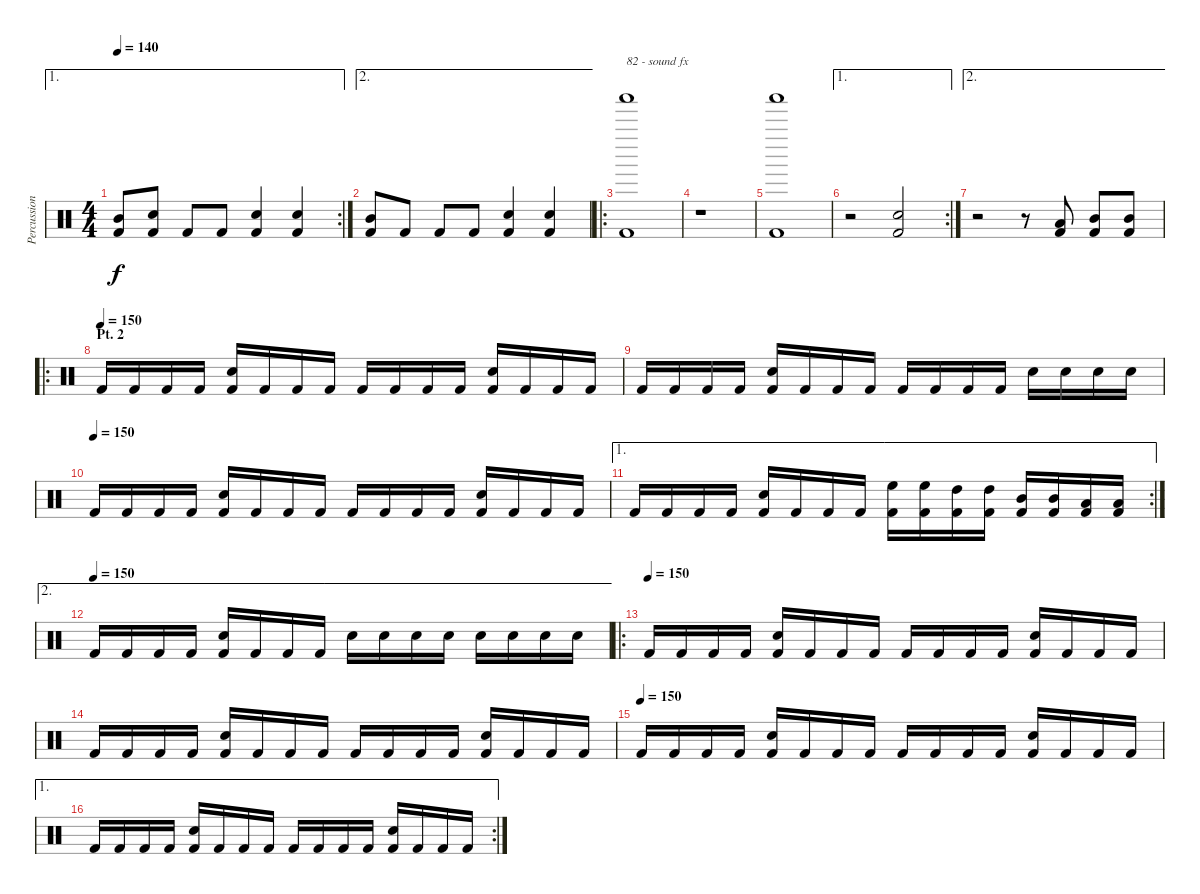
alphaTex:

\track ("Percussion" "Percussion") {instrument percussion}
\staff {score}
\articulation defaults
\ae 1
\rc 2
\ts (4 4)
\tempo 140
\clef neutral
\ks c
("Mid Tom (hit)" "Kick (hit) 2").8{dy f} ("Snare (hit) 2" "Kick (hit) 2").8 "Kick (hit) 2".8 "Kick (hit) 2".8 ("Snare (hit) 2" "Kick (hit) 2").4 ("Snare (hit) 2" "Kick (hit) 2").4 |
\ae 2
("Mid Tom (hit)" "Kick (hit) 2").8 "Kick (hit) 2".8 "Kick (hit) 2".8 "Kick (hit) 2".8 ("Snare (hit) 2" "Kick (hit) 2").4 ("Snare (hit) 2" "Kick (hit) 2").4 |
\ro
("Shaker (hit)" "Kick (hit) 2").1{txt "82 - sound fx"} |
r.1 |
("Shaker (hit)" "Kick (hit) 2").1 |
\ae 1
\rc 2
r.2 ("Snare (hit) 2" "Kick (hit) 2").2 |
\ae 2
r.2 r.8 ("Low Tom (hit)" "Kick (hit) 2").8 ("Mid Tom (hit)" "Kick (hit) 2").8 ("Mid Tom (hit)" "Kick (hit) 2").8 |
\ro
\section ("" "Pt. 2")
\tempo (150)
"Kick (hit) 2".16 "Kick (hit) 2".16 "Kick (hit) 2".16 "Kick (hit) 2".16 ("Snare (hit) 2" "Kick (hit) 2").16 "Kick (hit) 2".16 "Kick (hit) 2".16 "Kick (hit) 2".16 "Kick (hit) 2".16 "Kick (hit) 2".16 "Kick (hit) 2".16 "Kick (hit) 2".16 ("Snare (hit) 2" "Kick (hit) 2").16 "Kick (hit) 2".16 "Kick (hit) 2".16 "Kick (hit) 2".16 |
"Kick (hit) 2".16 "Kick (hit) 2".16 "Kick (hit) 2".16 "Kick (hit) 2".16 ("Snare (hit) 2" "Kick (hit) 2").16 "Kick (hit) 2".16 "Kick (hit) 2".16 "Kick (hit) 2".16 "Kick (hit) 2".16 "Kick (hit) 2".16 "Kick (hit) 2".16 "Kick (hit) 2".16 "Snare (hit) 2".16 "Snare (hit) 2".16 "Snare (hit) 2".16 "Snare (hit) 2".16 |
\tempo (150)
"Kick (hit) 2".16 "Kick (hit) 2".16 "Kick (hit) 2".16 "Kick (hit) 2".16 ("Snare (hit) 2" "Kick (hit) 2").16 "Kick (hit) 2".16 "Kick (hit) 2".16 "Kick (hit) 2".16 "Kick (hit) 2".16 "Kick (hit) 2".16 "Kick (hit) 2".16 "Kick (hit) 2".16 ("Snare (hit) 2" "Kick (hit) 2").16 "Kick (hit) 2".16 "Kick (hit) 2".16 "Kick (hit) 2".16 |
\ae 1
\rc 2 "Kick (hit) 2".16 "Kick (hit) 2".16 "Kick (hit) 2".16 "Kick (hit) 2".16
("Snare (hit) 2" "Kick (hit) 2").16 "Kick (hit) 2".16 "Kick (hit) 2".16 "Kick (hit) 2".16 ("High Floor Tom (hit)" "Kick (hit) 2").16 ("High Floor Tom (hit)" "Kick (hit) 2").16 ("High Tom (hit)" "Kick (hit) 2").16 ("High Tom (hit)" "Kick (hit) 2").16 ("Mid Tom (hit)" "Kick (hit) 2").16 ("Mid Tom (hit)" "Kick (hit) 2").16 ("Low Tom (hit)" "Kick (hit) 2").16 ("Low Tom (hit)" "Kick (hit) 2").16 |
\ae 2
\tempo (150)
"Kick (hit) 2".16 "Kick (hit) 2".16 "Kick (hit) 2".16 "Kick (hit) 2".16 ("Snare (hit) 2" "Kick (hit) 2").16 "Kick (hit) 2".16 "Kick (hit) 2".16 "Kick (hit) 2".16 "Snare (hit) 2".16 "Snare (hit) 2".16 "Snare (hit) 2".16 "Snare (hit) 2".16 "Snare (hit) 2".16 "Snare (hit) 2".16 "Snare (hit) 2".16 "Snare (hit) 2".16 |
\ro
\tempo (150)
"Kick (hit) 2".16 "Kick (hit) 2".16 "Kick (hit) 2".16 "Kick (hit) 2".16 ("Snare (hit) 2" "Kick (hit) 2").16 "Kick (hit) 2".16 "Kick (hit) 2".16 "Kick (hit) 2".16 "Kick (hit) 2".16 "Kick (hit) 2".16 "Kick (hit) 2".16 "Kick (hit) 2".16 ("Snare (hit) 2" "Kick (hit) 2").16 "Kick (hit) 2".16 "Kick (hit) 2".16 "Kick (hit) 2".16 |
"Kick (hit) 2".16 "Kick (hit) 2".16 "Kick (hit) 2".16 "Kick (hit) 2".16 ("Snare (hit) 2" "Kick (hit) 2").16 "Kick (hit) 2".16 "Kick (hit) 2".16 "Kick (hit) 2".16 "Kick (hit) 2".16 "Kick (hit) 2".16 "Kick (hit) 2".16 "Kick (hit) 2".16 ("Snare (hit) 2" "Kick (hit) 2").16 "Kick (hit) 2".16 "Kick (hit) 2".16 "Kick (hit) 2".16 |
\tempo (150)
"Kick (hit) 2".16 "Kick (hit) 2".16 "Kick (hit) 2".16 "Kick (hit) 2".16 ("Snare (hit) 2" "Kick (hit) 2").16 "Kick (hit) 2".16 "Kick (hit) 2".16 "Kick (hit) 2".16 "Kick (hit) 2".16 "Kick (hit) 2".16 "Kick (hit) 2".16 "Kick (hit) 2".16 ("Snare (hit) 2" "Kick (hit) 2").16 "Kick (hit) 2".16 "Kick (hit) 2".16 "Kick (hit) 2".16 |
\ae 1
\rc 2 "Kick (hit) 2".16 "Kick (hit) 2".16 "Kick (hit) 2".16 "Kick (hit) 2".16
("Snare (hit) 2" "Kick (hit) 2").16 "Kick (hit) 2".16 "Kick (hit) 2".16 "Kick (hit) 2".16 "Kick (hit) 2".16 "Kick (hit) 2".16 "Kick (hit) 2".16 "Kick (hit) 2".16 ("Snare (hit) 2" "Kick (hit) 2").16 "Kick (hit) 2".16 "Kick (hit) 2".16 "Kick (hit) 2".16
